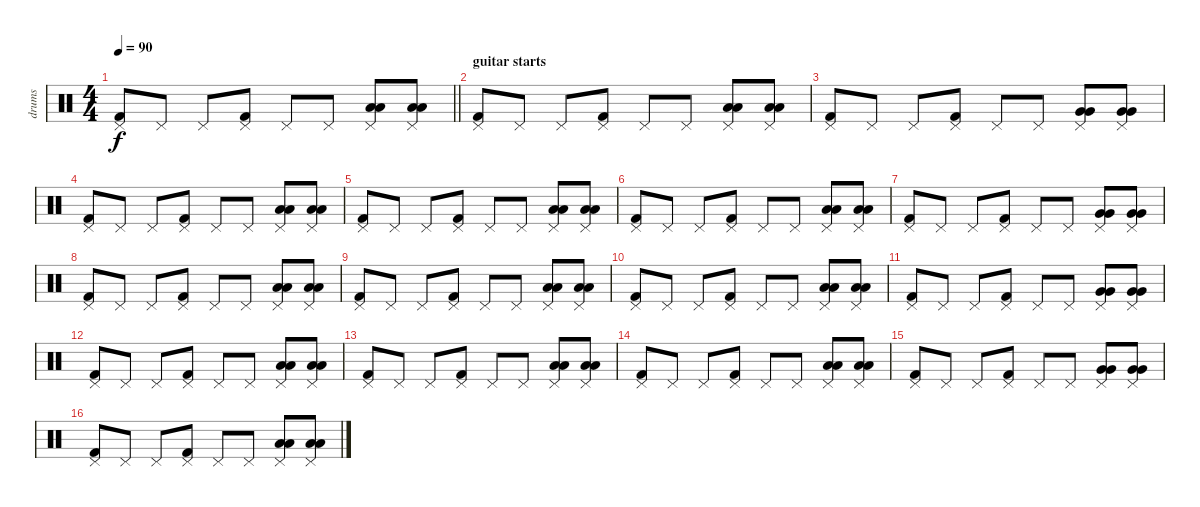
\track ("drums" "drums") {instrument percussion}
\staff {score}
\articulation defaults
\ts (4 4)
\tempo 90
\clef neutral
\barLineRight lightlight
\ks c
("Kick (hit) 2" "Pedal Hi-Hat (hit)").8{dy f} "Pedal Hi-Hat (hit)".8 "Pedal Hi-Hat (hit)".8 ("Kick (hit) 2" "Pedal Hi-Hat (hit)").8 "Pedal Hi-Hat (hit)".8 "Pedal Hi-Hat (hit)".8 ("Low Floor Tom (hit)" "Low Floor Tom (hit)" "Pedal Hi-Hat (hit)").8 ("Low Floor Tom (hit)" "Low Floor Tom (hit)" "Pedal Hi-Hat (hit)").8 |
\section ("" "guitar starts")
("Kick (hit) 2" "Pedal Hi-Hat (hit)").8 "Pedal Hi-Hat (hit)".8 "Pedal Hi-Hat (hit)".8 ("Kick (hit) 2" "Pedal Hi-Hat (hit)").8 "Pedal Hi-Hat (hit)".8 "Pedal Hi-Hat (hit)".8 ("Low Tom (hit)" "Low Tom (hit)" "Pedal Hi-Hat (hit)").8 ("Low Tom (hit)" "Low Tom (hit)" "Pedal Hi-Hat (hit)").8 |
("Kick (hit) 2" "Pedal Hi-Hat (hit)").8 "Pedal Hi-Hat (hit)".8 "Pedal Hi-Hat (hit)".8 ("Kick (hit) 2" "Pedal Hi-Hat (hit)").8 "Pedal Hi-Hat (hit)".8 "Pedal Hi-Hat (hit)".8 ("Very Low Tom (hit)" "Very Low Tom (hit)" "Pedal Hi-Hat (hit)").8 ("Very Low Tom (hit)" "Very Low Tom (hit)" "Pedal Hi-Hat (hit)").8 |
("Kick (hit) 2" "Pedal Hi-Hat (hit)").8 "Pedal Hi-Hat (hit)".8 "Pedal Hi-Hat (hit)".8 ("Kick (hit) 2" "Pedal Hi-Hat (hit)").8 "Pedal Hi-Hat (hit)".8 "Pedal Hi-Hat (hit)".8 ("Low Tom (hit)" "Low Tom (hit)" "Pedal Hi-Hat (hit)").8 ("Low Tom (hit)" "Low Tom (hit)" "Pedal Hi-Hat (hit)").8 |
("Kick (hit) 2" "Pedal Hi-Hat (hit)").8 "Pedal Hi-Hat (hit)".8 "Pedal Hi-Hat (hit)".8 ("Kick (hit) 2" "Pedal Hi-Hat (hit)").8 "Pedal Hi-Hat (hit)".8 "Pedal Hi-Hat (hit)".8 ("Low Floor Tom (hit)" "Low Floor Tom (hit)" "Pedal Hi-Hat (hit)").8 ("Low Floor Tom (hit)" "Low Floor Tom (hit)" "Pedal Hi-Hat (hit)").8 |
("Kick (hit) 2" "Pedal Hi-Hat (hit)").8 "Pedal Hi-Hat (hit)".8 "Pedal Hi-Hat (hit)".8 ("Kick (hit) 2" "Pedal Hi-Hat (hit)").8 "Pedal Hi-Hat (hit)".8 "Pedal Hi-Hat (hit)".8 ("Low Tom (hit)" "Low Tom (hit)" "Pedal Hi-Hat (hit)").8 ("Low Tom (hit)" "Low Tom (hit)" "Pedal Hi-Hat (hit)").8 |
("Kick (hit) 2" "Pedal Hi-Hat (hit)").8 "Pedal Hi-Hat (hit)".8 "Pedal Hi-Hat (hit)".8 ("Kick (hit) 2" "Pedal Hi-Hat (hit)").8 "Pedal Hi-Hat (hit)".8 "Pedal Hi-Hat (hit)".8 ("Very Low Tom (hit)" "Very Low Tom (hit)" "Pedal Hi-Hat (hit)").8 ("Very Low Tom (hit)" "Very Low Tom (hit)" "Pedal Hi-Hat (hit)").8 |
("Kick (hit) 2" "Pedal Hi-Hat (hit)").8 "Pedal Hi-Hat (hit)".8 "Pedal Hi-Hat (hit)".8 ("Kick (hit) 2" "Pedal Hi-Hat (hit)").8 "Pedal Hi-Hat (hit)".8 "Pedal Hi-Hat (hit)".8 ("Low Tom (hit)" "Low Tom (hit)" "Pedal Hi-Hat (hit)").8 ("Low Tom (hit)" "Low Tom (hit)" "Pedal Hi-Hat (hit)").8 |
("Kick (hit) 2" "Pedal Hi-Hat (hit)").8 "Pedal Hi-Hat (hit)".8 "Pedal Hi-Hat (hit)".8 ("Kick (hit) 2" "Pedal Hi-Hat (hit)").8 "Pedal Hi-Hat (hit)".8 "Pedal Hi-Hat (hit)".8 ("Low Floor Tom (hit)" "Low Floor Tom (hit)" "Pedal Hi-Hat (hit)").8 ("Low Floor Tom (hit)" "Low Floor Tom (hit)" "Pedal Hi-Hat (hit)").8 |
("Kick (hit) 2" "Pedal Hi-Hat (hit)").8 "Pedal Hi-Hat (hit)".8 "Pedal Hi-Hat (hit)".8 ("Kick (hit) 2" "Pedal Hi-Hat (hit)").8 "Pedal Hi-Hat (hit)".8 "Pedal Hi-Hat (hit)".8 ("Low Tom (hit)" "Low Tom (hit)" "Pedal Hi-Hat (hit)").8 ("Low Tom (hit)" "Low Tom (hit)" "Pedal Hi-Hat (hit)").8 |
("Kick (hit) 2" "Pedal Hi-Hat (hit)").8 "Pedal Hi-Hat (hit)".8 "Pedal Hi-Hat (hit)".8 ("Kick (hit) 2" "Pedal Hi-Hat (hit)").8 "Pedal Hi-Hat (hit)".8 "Pedal Hi-Hat (hit)".8 ("Very Low Tom (hit)" "Very Low Tom (hit)" "Pedal Hi-Hat (hit)").8 ("Very Low Tom (hit)" "Very Low Tom (hit)" "Pedal Hi-Hat (hit)").8 |
("Kick (hit) 2" "Pedal Hi-Hat (hit)").8 "Pedal Hi-Hat (hit)".8 "Pedal Hi-Hat (hit)".8 ("Kick (hit) 2" "Pedal Hi-Hat (hit)").8 "Pedal Hi-Hat (hit)".8 "Pedal Hi-Hat (hit)".8 ("Low Tom (hit)" "Low Tom (hit)" "Pedal Hi-Hat (hit)").8 ("Low Tom (hit)" "Low Tom (hit)" "Pedal Hi-Hat (hit)").8 |
("Kick (hit) 2" "Pedal Hi-Hat (hit)").8 "Pedal Hi-Hat (hit)".8 "Pedal Hi-Hat (hit)".8 ("Kick (hit) 2" "Pedal Hi-Hat (hit)").8 "Pedal Hi-Hat (hit)".8 "Pedal Hi-Hat (hit)".8 ("Low Floor Tom (hit)" "Low Floor Tom (hit)" "Pedal Hi-Hat (hit)").8 ("Low Floor Tom (hit)" "Low Floor Tom (hit)" "Pedal Hi-Hat (hit)").8 |
("Kick (hit) 2" "Pedal Hi-Hat (hit)").8 "Pedal Hi-Hat (hit)".8 "Pedal Hi-Hat (hit)".8 ("Kick (hit) 2" "Pedal Hi-Hat (hit)").8 "Pedal Hi-Hat (hit)".8 "Pedal Hi-Hat (hit)".8 ("Low Tom (hit)" "Low Tom (hit)" "Pedal Hi-Hat (hit)").8 ("Low Tom (hit)" "Low Tom (hit)" "Pedal Hi-Hat (hit)").8 |
("Kick (hit) 2" "Pedal Hi-Hat (hit)").8 "Pedal Hi-Hat (hit)".8 "Pedal Hi-Hat (hit)".8 ("Kick (hit) 2" "Pedal Hi-Hat (hit)").8 "Pedal Hi-Hat (hit)".8 "Pedal Hi-Hat (hit)".8 ("Very Low Tom (hit)" "Very Low Tom (hit)" "Pedal Hi-Hat (hit)").8 ("Very Low Tom (hit)" "Very Low Tom (hit)" "Pedal Hi-Hat (hit)").8 |
("Kick (hit) 2" "Pedal Hi-Hat (hit)").8 "Pedal Hi-Hat (hit)".8 "Pedal Hi-Hat (hit)".8 ("Kick (hit) 2" "Pedal Hi-Hat (hit)").8 "Pedal Hi-Hat (hit)".8 "Pedal Hi-Hat (hit)".8 ("Low Tom (hit)" "Low Tom (hit)" "Pedal Hi-Hat (hit)").8 ("Low Tom (hit)" "Low Tom (hit)" "Pedal Hi-Hat (hit)").8
